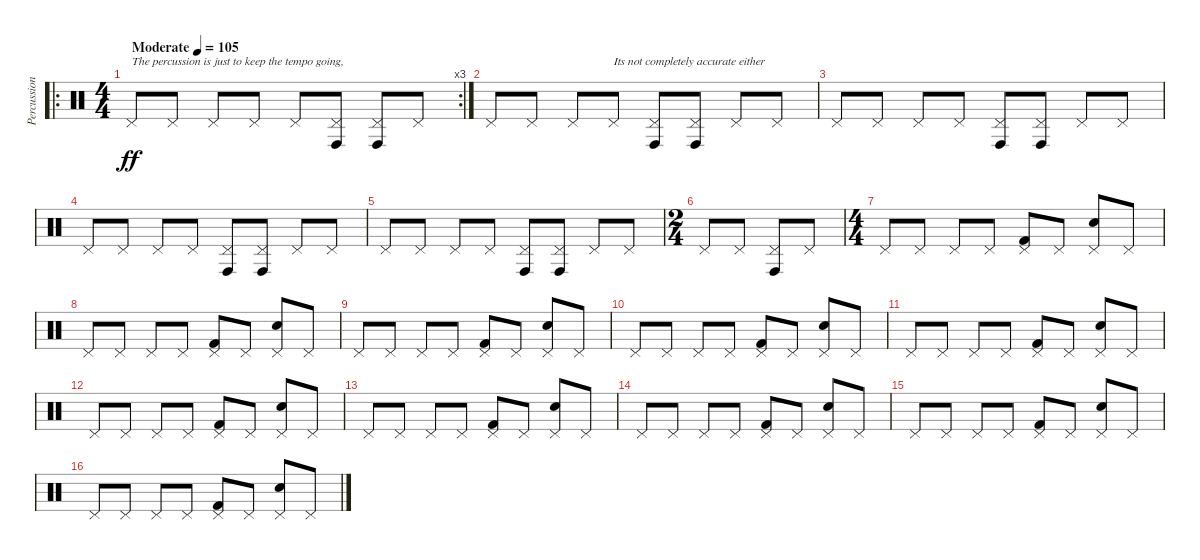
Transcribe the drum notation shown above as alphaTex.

\track ("Percussion" "Percussion") {instrument percussion}
\staff {score}
\articulation defaults
\ro
\rc 3
\ts (4 4)
\tempo (105 "Moderate")
\clef neutral
\ks c "Pedal Hi-Hat (hit)".8{txt "The percussion is just to keep the tempo going," dy ff} "Pedal Hi-Hat (hit)".8 "Pedal Hi-Hat (hit)".8 "Pedal Hi-Hat (hit)".8 "Pedal Hi-Hat (hit)".8
("Pedal Hi-Hat (hit)" "Conga high (hit)").8 ("Pedal Hi-Hat (hit)" "Conga high (hit)").8 "Pedal Hi-Hat (hit)".8 |
"Pedal Hi-Hat (hit)".8 "Pedal Hi-Hat (hit)".8 "Pedal Hi-Hat (hit)".8 "Pedal Hi-Hat (hit)".8{txt "Its not completely accurate either"} ("Pedal Hi-Hat (hit)" "Conga high (hit)").8 ("Pedal Hi-Hat (hit)" "Conga high (hit)").8 "Pedal Hi-Hat (hit)".8 "Pedal Hi-Hat (hit)".8 |
"Pedal Hi-Hat (hit)".8 "Pedal Hi-Hat (hit)".8 "Pedal Hi-Hat (hit)".8 "Pedal Hi-Hat (hit)".8 ("Pedal Hi-Hat (hit)" "Conga high (hit)").8 ("Pedal Hi-Hat (hit)" "Conga high (hit)").8 "Pedal Hi-Hat (hit)".8 "Pedal Hi-Hat (hit)".8 |
"Pedal Hi-Hat (hit)".8 "Pedal Hi-Hat (hit)".8 "Pedal Hi-Hat (hit)".8 "Pedal Hi-Hat (hit)".8 ("Pedal Hi-Hat (hit)" "Conga high (hit)").8 ("Pedal Hi-Hat (hit)" "Conga high (hit)").8 "Pedal Hi-Hat (hit)".8 "Pedal Hi-Hat (hit)".8 |
"Pedal Hi-Hat (hit)".8 "Pedal Hi-Hat (hit)".8 "Pedal Hi-Hat (hit)".8 "Pedal Hi-Hat (hit)".8 ("Pedal Hi-Hat (hit)" "Conga high (hit)").8 ("Pedal Hi-Hat (hit)" "Conga high (hit)").8 "Pedal Hi-Hat (hit)".8 "Pedal Hi-Hat (hit)".8 |
\ts (2 4)
"Pedal Hi-Hat (hit)".8 "Pedal Hi-Hat (hit)".8 ("Pedal Hi-Hat (hit)" "Conga high (hit)").8 "Pedal Hi-Hat (hit)".8 |
\ts (4 4)
"Pedal Hi-Hat (hit)".8 "Pedal Hi-Hat (hit)".8 "Pedal Hi-Hat (hit)".8 "Pedal Hi-Hat (hit)".8 ("Pedal Hi-Hat (hit)" "Kick (hit) 2").8 "Pedal Hi-Hat (hit)".8 ("Pedal Hi-Hat (hit)" "Electric Snare (hit)").8 "Pedal Hi-Hat (hit)".8 |
"Pedal Hi-Hat (hit)".8 "Pedal Hi-Hat (hit)".8 "Pedal Hi-Hat (hit)".8 "Pedal Hi-Hat (hit)".8 ("Pedal Hi-Hat (hit)" "Kick (hit) 2").8 "Pedal Hi-Hat (hit)".8 ("Pedal Hi-Hat (hit)" "Electric Snare (hit)").8 "Pedal Hi-Hat (hit)".8 |
"Pedal Hi-Hat (hit)".8 "Pedal Hi-Hat (hit)".8 "Pedal Hi-Hat (hit)".8 "Pedal Hi-Hat (hit)".8 ("Pedal Hi-Hat (hit)" "Kick (hit) 2").8 "Pedal Hi-Hat (hit)".8 ("Pedal Hi-Hat (hit)" "Electric Snare (hit)").8 "Pedal Hi-Hat (hit)".8 |
"Pedal Hi-Hat (hit)".8 "Pedal Hi-Hat (hit)".8 "Pedal Hi-Hat (hit)".8 "Pedal Hi-Hat (hit)".8 ("Pedal Hi-Hat (hit)" "Kick (hit) 2").8 "Pedal Hi-Hat (hit)".8 ("Pedal Hi-Hat (hit)" "Electric Snare (hit)").8 "Pedal Hi-Hat (hit)".8 |
"Pedal Hi-Hat (hit)".8 "Pedal Hi-Hat (hit)".8 "Pedal Hi-Hat (hit)".8 "Pedal Hi-Hat (hit)".8 ("Pedal Hi-Hat (hit)" "Kick (hit) 2").8 "Pedal Hi-Hat (hit)".8 ("Pedal Hi-Hat (hit)" "Electric Snare (hit)").8 "Pedal Hi-Hat (hit)".8 |
"Pedal Hi-Hat (hit)".8 "Pedal Hi-Hat (hit)".8 "Pedal Hi-Hat (hit)".8 "Pedal Hi-Hat (hit)".8 ("Pedal Hi-Hat (hit)" "Kick (hit) 2").8 "Pedal Hi-Hat (hit)".8 ("Pedal Hi-Hat (hit)" "Electric Snare (hit)").8 "Pedal Hi-Hat (hit)".8 |
"Pedal Hi-Hat (hit)".8 "Pedal Hi-Hat (hit)".8 "Pedal Hi-Hat (hit)".8 "Pedal Hi-Hat (hit)".8 ("Pedal Hi-Hat (hit)" "Kick (hit) 2").8 "Pedal Hi-Hat (hit)".8 ("Pedal Hi-Hat (hit)" "Electric Snare (hit)").8 "Pedal Hi-Hat (hit)".8 |
"Pedal Hi-Hat (hit)".8 "Pedal Hi-Hat (hit)".8 "Pedal Hi-Hat (hit)".8 "Pedal Hi-Hat (hit)".8 ("Pedal Hi-Hat (hit)" "Kick (hit) 2").8 "Pedal Hi-Hat (hit)".8 ("Pedal Hi-Hat (hit)" "Electric Snare (hit)").8 "Pedal Hi-Hat (hit)".8 |
"Pedal Hi-Hat (hit)".8 "Pedal Hi-Hat (hit)".8 "Pedal Hi-Hat (hit)".8 "Pedal Hi-Hat (hit)".8 ("Pedal Hi-Hat (hit)" "Kick (hit) 2").8 "Pedal Hi-Hat (hit)".8 ("Pedal Hi-Hat (hit)" "Electric Snare (hit)").8 "Pedal Hi-Hat (hit)".8 |
"Pedal Hi-Hat (hit)".8 "Pedal Hi-Hat (hit)".8 "Pedal Hi-Hat (hit)".8 "Pedal Hi-Hat (hit)".8 ("Pedal Hi-Hat (hit)" "Kick (hit) 2").8 "Pedal Hi-Hat (hit)".8 ("Pedal Hi-Hat (hit)" "Electric Snare (hit)").8 "Pedal Hi-Hat (hit)".8
